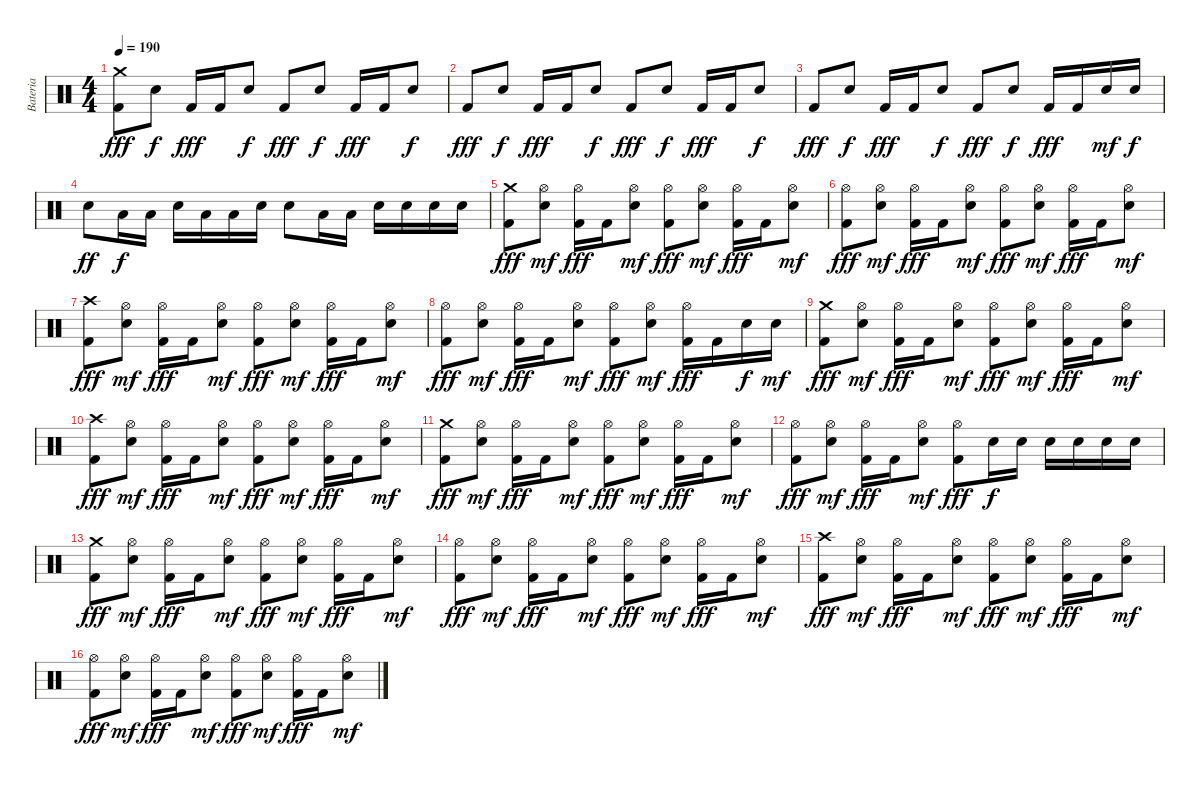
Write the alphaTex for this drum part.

\track ("Bateria" "Bateria") {instrument percussion}
\staff {score}
\articulation defaults
\ts (4 4)
\tempo 190
\clef neutral
\ks c
("Crash medium (hit)" "Kick (hit) 2").8{dy fff} "Electric Snare (hit)".8{dy f} "Kick (hit) 2".16{dy fff} "Kick (hit) 2".16 "Electric Snare (hit)".8{dy f} "Kick (hit) 2".8{dy fff} "Electric Snare (hit)".8{dy f} "Kick (hit) 2".16{dy fff} "Kick (hit) 2".16 "Electric Snare (hit)".8{dy f} |
"Kick (hit) 2".8{dy fff} "Electric Snare (hit)".8{dy f} "Kick (hit) 2".16{dy fff} "Kick (hit) 2".16 "Electric Snare (hit)".8{dy f} "Kick (hit) 2".8{dy fff} "Electric Snare (hit)".8{dy f} "Kick (hit) 2".16{dy fff} "Kick (hit) 2".16 "Electric Snare (hit)".8{dy f} |
"Kick (hit) 2".8{dy fff} "Electric Snare (hit)".8{dy f} "Kick (hit) 2".16{dy fff} "Kick (hit) 2".16 "Electric Snare (hit)".8{dy f} "Kick (hit) 2".8{dy fff} "Electric Snare (hit)".8{dy f} "Kick (hit) 2".16{dy fff} "Kick (hit) 2".16 "Electric Snare (hit)".16{dy mf} "Electric Snare (hit)".16{dy f} |
"Electric Snare (hit)".8{dy ff} "Low Tom (hit)".16{dy f} "Low Tom (hit)".16 "Electric Snare (hit)".16 "Low Tom (hit)".16 "Low Tom (hit)".16 "Electric Snare (hit)".16 "Electric Snare (hit)".8 "Low Tom (hit)".16 "Low Tom (hit)".16 "Electric Snare (hit)".16 "Electric Snare (hit)".16 "Electric Snare (hit)".16 "Electric Snare (hit)".16 |
("Crash medium (hit)" "Kick (hit) 2").8{dy fff} ("Hi-Hat (open)" "Electric Snare (hit)").8{dy mf} ("Hi-Hat (open)" "Kick (hit) 2").16{dy fff} "Kick (hit) 2".16 ("Hi-Hat (open)" "Electric Snare (hit)").8{dy mf} ("Hi-Hat (open)" "Kick (hit) 2").8{dy fff} ("Hi-Hat (open)" "Electric Snare (hit)").8{dy mf} ("Hi-Hat (open)" "Kick (hit) 2").16{dy fff} "Kick (hit) 2".16 ("Hi-Hat (open)" "Electric Snare (hit)").8{dy mf} |
("Hi-Hat (open)" "Kick (hit) 2").8{dy fff} ("Hi-Hat (open)" "Electric Snare (hit)").8{dy mf} ("Hi-Hat (open)" "Kick (hit) 2").16{dy fff} "Kick (hit) 2".16 ("Hi-Hat (open)" "Electric Snare (hit)").8{dy mf} ("Hi-Hat (open)" "Kick (hit) 2").8{dy fff} ("Hi-Hat (open)" "Electric Snare (hit)").8{dy mf} ("Hi-Hat (open)" "Kick (hit) 2").16{dy fff} "Kick (hit) 2".16 ("Hi-Hat (open)" "Electric Snare (hit)").8{dy mf} |
("Crash high (hit)" "Kick (hit) 2").8{dy fff} ("Hi-Hat (open)" "Electric Snare (hit)").8{dy mf} ("Hi-Hat (open)" "Kick (hit) 2").16{dy fff} "Kick (hit) 2".16 ("Hi-Hat (open)" "Electric Snare (hit)").8{dy mf} ("Hi-Hat (open)" "Kick (hit) 2").8{dy fff} ("Hi-Hat (open)" "Electric Snare (hit)").8{dy mf} ("Hi-Hat (open)" "Kick (hit) 2").16{dy fff} "Kick (hit) 2".16 ("Hi-Hat (open)" "Electric Snare (hit)").8{dy mf} |
("Hi-Hat (open)" "Kick (hit) 2").8{dy fff} ("Hi-Hat (open)" "Electric Snare (hit)").8{dy mf} ("Hi-Hat (open)" "Kick (hit) 2").16{dy fff} "Kick (hit) 2".16 ("Hi-Hat (open)" "Electric Snare (hit)").8{dy mf} ("Hi-Hat (open)" "Kick (hit) 2").8{dy fff} ("Hi-Hat (open)" "Electric Snare (hit)").8{dy mf} ("Hi-Hat (open)" "Kick (hit) 2").16{dy fff} "Kick (hit) 2".16 "Electric Snare (hit)".16{dy f} "Electric Snare (hit)".16{dy mf} |
("Crash medium (hit)" "Kick (hit) 2").8{dy fff} ("Hi-Hat (open)" "Electric Snare (hit)").8{dy mf} ("Hi-Hat (open)" "Kick (hit) 2").16{dy fff} "Kick (hit) 2".16 ("Hi-Hat (open)" "Electric Snare (hit)").8{dy mf} ("Hi-Hat (open)" "Kick (hit) 2").8{dy fff} ("Hi-Hat (open)" "Electric Snare (hit)").8{dy mf} ("Hi-Hat (open)" "Kick (hit) 2").16{dy fff} "Kick (hit) 2".16 ("Hi-Hat (open)" "Electric Snare (hit)").8{dy mf} |
("Crash high (hit)" "Kick (hit) 2").8{dy fff} ("Hi-Hat (open)" "Electric Snare (hit)").8{dy mf} ("Hi-Hat (open)" "Kick (hit) 2").16{dy fff} "Kick (hit) 2".16 ("Hi-Hat (open)" "Electric Snare (hit)").8{dy mf} ("Hi-Hat (open)" "Kick (hit) 2").8{dy fff} ("Hi-Hat (open)" "Electric Snare (hit)").8{dy mf} ("Hi-Hat (open)" "Kick (hit) 2").16{dy fff} "Kick (hit) 2".16 ("Hi-Hat (open)" "Electric Snare (hit)").8{dy mf} |
("Crash medium (hit)" "Kick (hit) 2").8{dy fff} ("Hi-Hat (open)" "Electric Snare (hit)").8{dy mf} ("Hi-Hat (open)" "Kick (hit) 2").16{dy fff} "Kick (hit) 2".16 ("Hi-Hat (open)" "Electric Snare (hit)").8{dy mf} ("Hi-Hat (open)" "Kick (hit) 2").8{dy fff} ("Hi-Hat (open)" "Electric Snare (hit)").8{dy mf} ("Hi-Hat (open)" "Kick (hit) 2").16{dy fff} "Kick (hit) 2".16 ("Hi-Hat (open)" "Electric Snare (hit)").8{dy mf} |
("Hi-Hat (open)" "Kick (hit) 2").8{dy fff} ("Hi-Hat (open)" "Electric Snare (hit)").8{dy mf} ("Hi-Hat (open)" "Kick (hit) 2").16{dy fff} "Kick (hit) 2".16 ("Hi-Hat (open)" "Electric Snare (hit)").8{dy mf} ("Hi-Hat (open)" "Kick (hit) 2").8{dy fff} "Electric Snare (hit)".16{dy f} "Electric Snare (hit)".16 "Electric Snare (hit)".16 "Electric Snare (hit)".16 "Electric Snare (hit)".16 "Electric Snare (hit)".16 |
("Crash medium (hit)" "Kick (hit) 2").8{dy fff} ("Hi-Hat (open)" "Electric Snare (hit)").8{dy mf} ("Hi-Hat (open)" "Kick (hit) 2").16{dy fff} "Kick (hit) 2".16 ("Hi-Hat (open)" "Electric Snare (hit)").8{dy mf} ("Hi-Hat (open)" "Kick (hit) 2").8{dy fff} ("Hi-Hat (open)" "Electric Snare (hit)").8{dy mf} ("Hi-Hat (open)" "Kick (hit) 2").16{dy fff} "Kick (hit) 2".16 ("Hi-Hat (open)" "Electric Snare (hit)").8{dy mf} |
("Hi-Hat (open)" "Kick (hit) 2").8{dy fff} ("Hi-Hat (open)" "Electric Snare (hit)").8{dy mf} ("Hi-Hat (open)" "Kick (hit) 2").16{dy fff} "Kick (hit) 2".16 ("Hi-Hat (open)" "Electric Snare (hit)").8{dy mf} ("Hi-Hat (open)" "Kick (hit) 2").8{dy fff} ("Hi-Hat (open)" "Electric Snare (hit)").8{dy mf} ("Hi-Hat (open)" "Kick (hit) 2").16{dy fff} "Kick (hit) 2".16 ("Hi-Hat (open)" "Electric Snare (hit)").8{dy mf} |
("Crash high (hit)" "Kick (hit) 2").8{dy fff} ("Hi-Hat (open)" "Electric Snare (hit)").8{dy mf} ("Hi-Hat (open)" "Kick (hit) 2").16{dy fff} "Kick (hit) 2".16 ("Hi-Hat (open)" "Electric Snare (hit)").8{dy mf} ("Hi-Hat (open)" "Kick (hit) 2").8{dy fff} ("Hi-Hat (open)" "Electric Snare (hit)").8{dy mf} ("Hi-Hat (open)" "Kick (hit) 2").16{dy fff} "Kick (hit) 2".16 ("Hi-Hat (open)" "Electric Snare (hit)").8{dy mf} |
("Hi-Hat (open)" "Kick (hit) 2").8{dy fff} ("Hi-Hat (open)" "Electric Snare (hit)").8{dy mf} ("Hi-Hat (open)" "Kick (hit) 2").16{dy fff} "Kick (hit) 2".16 ("Hi-Hat (open)" "Electric Snare (hit)").8{dy mf} ("Hi-Hat (open)" "Kick (hit) 2").8{dy fff} ("Hi-Hat (open)" "Electric Snare (hit)").8{dy mf} ("Hi-Hat (open)" "Kick (hit) 2").16{dy fff} "Kick (hit) 2".16 ("Hi-Hat (open)" "Electric Snare (hit)").8{dy mf}
